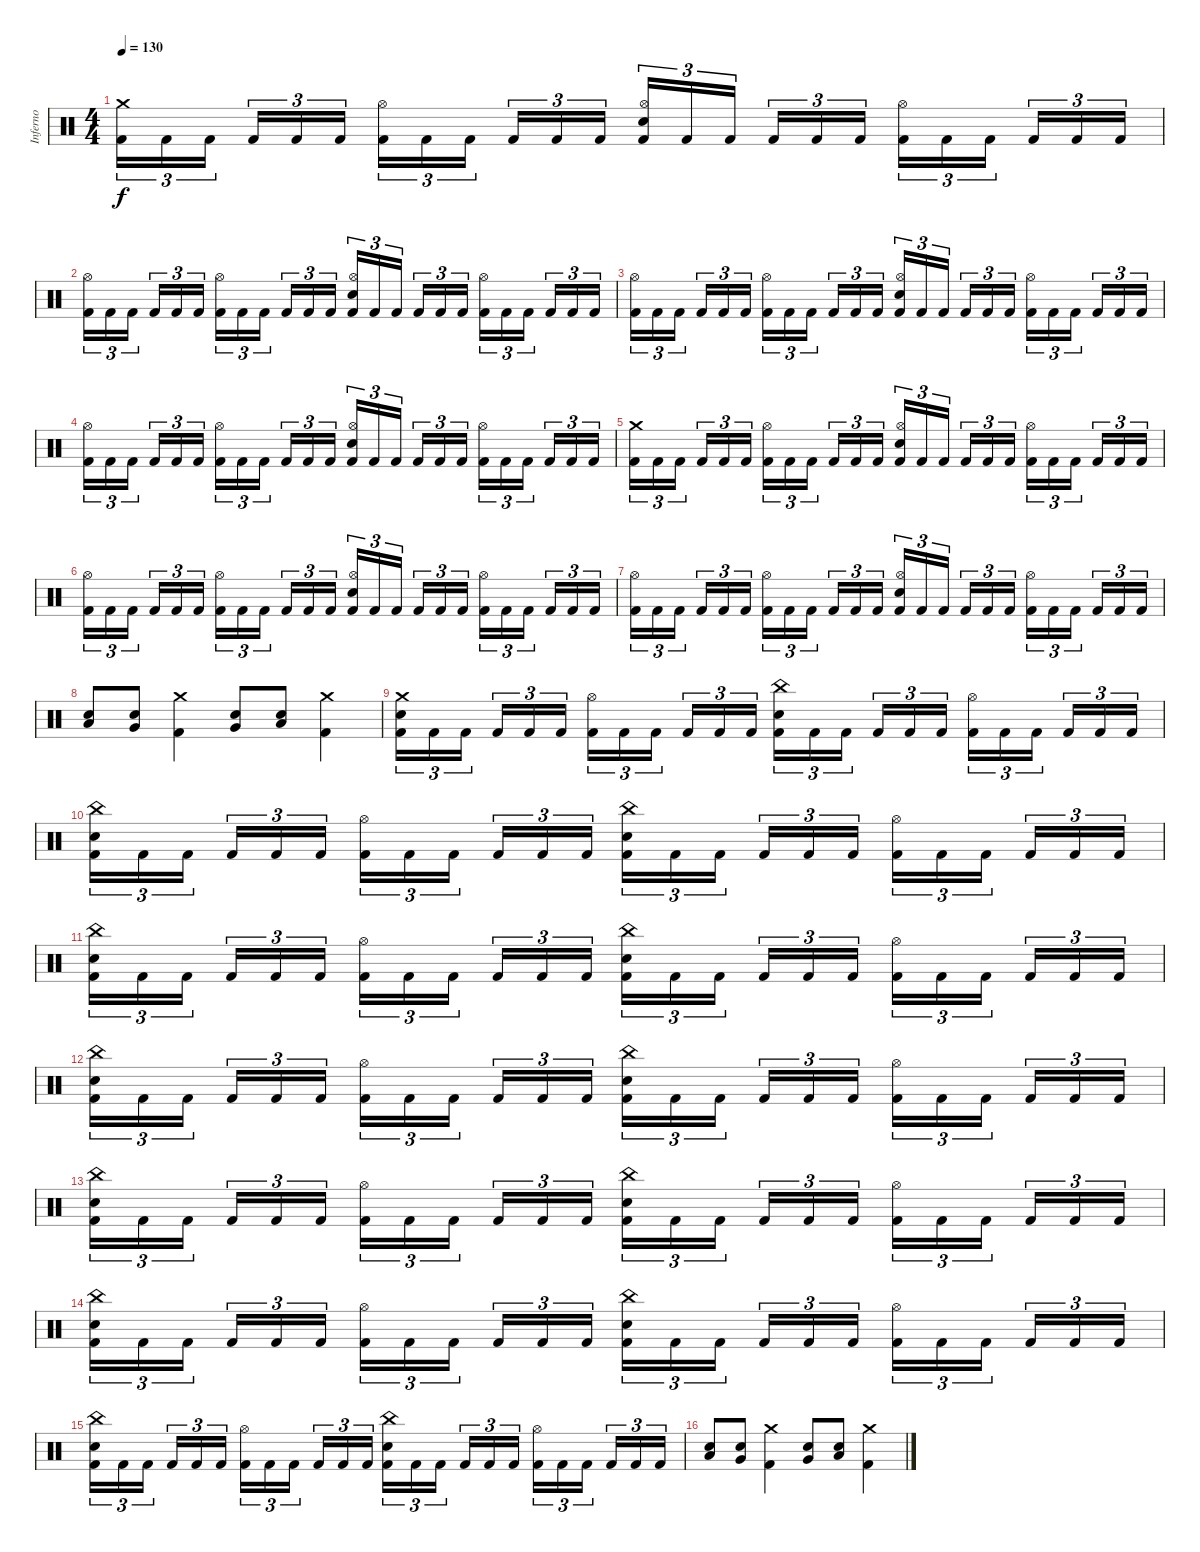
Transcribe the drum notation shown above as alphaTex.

\track ("Inferno" "Inferno") {instrument percussion}
\staff {score}
\articulation defaults
\ts (4 4)
\tempo 130
\clef neutral
\ks c
("Crash medium (hit)" "Kick (hit) 2").16{tu (3 2) dy f} "Kick (hit) 2".16{tu (3 2)} "Kick (hit) 2".16{tu (3 2) beam splitsecondary} "Kick (hit) 2".16{tu (3 2)} "Kick (hit) 2".16{tu (3 2)} "Kick (hit) 2".16{tu (3 2)} ("Hi-Hat (open)" "Kick (hit) 2").16{tu (3 2)} "Kick (hit) 2".16{tu (3 2)} "Kick (hit) 2".16{tu (3 2) beam splitsecondary} "Kick (hit) 2".16{tu (3 2)} "Kick (hit) 2".16{tu (3 2)} "Kick (hit) 2".16{tu (3 2)} ("Hi-Hat (open)" "Snare (hit) 2" "Kick (hit) 2").16{tu (3 2)} "Kick (hit) 2".16{tu (3 2)} "Kick (hit) 2".16{tu (3 2) beam splitsecondary} "Kick (hit) 2".16{tu (3 2)} "Kick (hit) 2".16{tu (3 2)} "Kick (hit) 2".16{tu (3 2)} ("Hi-Hat (open)" "Kick (hit) 2").16{tu (3 2)} "Kick (hit) 2".16{tu (3 2)} "Kick (hit) 2".16{tu (3 2) beam splitsecondary} "Kick (hit) 2".16{tu (3 2)} "Kick (hit) 2".16{tu (3 2)} "Kick (hit) 2".16{tu (3 2)} |
("Hi-Hat (open)" "Kick (hit) 2").16{tu (3 2)} "Kick (hit) 2".16{tu (3 2)} "Kick (hit) 2".16{tu (3 2) beam splitsecondary} "Kick (hit) 2".16{tu (3 2)} "Kick (hit) 2".16{tu (3 2)} "Kick (hit) 2".16{tu (3 2)} ("Hi-Hat (open)" "Kick (hit) 2").16{tu (3 2)} "Kick (hit) 2".16{tu (3 2)} "Kick (hit) 2".16{tu (3 2) beam splitsecondary} "Kick (hit) 2".16{tu (3 2)} "Kick (hit) 2".16{tu (3 2)} "Kick (hit) 2".16{tu (3 2)} ("Hi-Hat (open)" "Snare (hit) 2" "Kick (hit) 2").16{tu (3 2)} "Kick (hit) 2".16{tu (3 2)} "Kick (hit) 2".16{tu (3 2) beam splitsecondary} "Kick (hit) 2".16{tu (3 2)} "Kick (hit) 2".16{tu (3 2)} "Kick (hit) 2".16{tu (3 2)} ("Hi-Hat (open)" "Kick (hit) 2").16{tu (3 2)} "Kick (hit) 2".16{tu (3 2)} "Kick (hit) 2".16{tu (3 2) beam splitsecondary} "Kick (hit) 2".16{tu (3 2)} "Kick (hit) 2".16{tu (3 2)} "Kick (hit) 2".16{tu (3 2)} |
("Hi-Hat (open)" "Kick (hit) 2").16{tu (3 2)} "Kick (hit) 2".16{tu (3 2)} "Kick (hit) 2".16{tu (3 2) beam splitsecondary} "Kick (hit) 2".16{tu (3 2)} "Kick (hit) 2".16{tu (3 2)} "Kick (hit) 2".16{tu (3 2)} ("Hi-Hat (open)" "Kick (hit) 2").16{tu (3 2)} "Kick (hit) 2".16{tu (3 2)} "Kick (hit) 2".16{tu (3 2) beam splitsecondary} "Kick (hit) 2".16{tu (3 2)} "Kick (hit) 2".16{tu (3 2)} "Kick (hit) 2".16{tu (3 2)} ("Hi-Hat (open)" "Snare (hit) 2" "Kick (hit) 2").16{tu (3 2)} "Kick (hit) 2".16{tu (3 2)} "Kick (hit) 2".16{tu (3 2) beam splitsecondary} "Kick (hit) 2".16{tu (3 2)} "Kick (hit) 2".16{tu (3 2)} "Kick (hit) 2".16{tu (3 2)} ("Hi-Hat (open)" "Kick (hit) 2").16{tu (3 2)} "Kick (hit) 2".16{tu (3 2)} "Kick (hit) 2".16{tu (3 2) beam splitsecondary} "Kick (hit) 2".16{tu (3 2)} "Kick (hit) 2".16{tu (3 2)} "Kick (hit) 2".16{tu (3 2)} |
("Hi-Hat (open)" "Kick (hit) 2").16{tu (3 2)} "Kick (hit) 2".16{tu (3 2)} "Kick (hit) 2".16{tu (3 2) beam splitsecondary} "Kick (hit) 2".16{tu (3 2)} "Kick (hit) 2".16{tu (3 2)} "Kick (hit) 2".16{tu (3 2)} ("Hi-Hat (open)" "Kick (hit) 2").16{tu (3 2)} "Kick (hit) 2".16{tu (3 2)} "Kick (hit) 2".16{tu (3 2) beam splitsecondary} "Kick (hit) 2".16{tu (3 2)} "Kick (hit) 2".16{tu (3 2)} "Kick (hit) 2".16{tu (3 2)} ("Hi-Hat (open)" "Snare (hit) 2" "Kick (hit) 2").16{tu (3 2)} "Kick (hit) 2".16{tu (3 2)} "Kick (hit) 2".16{tu (3 2) beam splitsecondary} "Kick (hit) 2".16{tu (3 2)} "Kick (hit) 2".16{tu (3 2)} "Kick (hit) 2".16{tu (3 2)} ("Hi-Hat (open)" "Kick (hit) 2").16{tu (3 2)} "Kick (hit) 2".16{tu (3 2)} "Kick (hit) 2".16{tu (3 2) beam splitsecondary} "Kick (hit) 2".16{tu (3 2)} "Kick (hit) 2".16{tu (3 2)} "Kick (hit) 2".16{tu (3 2)} |
("Crash medium (hit)" "Kick (hit) 2").16{tu (3 2)} "Kick (hit) 2".16{tu (3 2)} "Kick (hit) 2".16{tu (3 2) beam splitsecondary} "Kick (hit) 2".16{tu (3 2)} "Kick (hit) 2".16{tu (3 2)} "Kick (hit) 2".16{tu (3 2)} ("Hi-Hat (open)" "Kick (hit) 2").16{tu (3 2)} "Kick (hit) 2".16{tu (3 2)} "Kick (hit) 2".16{tu (3 2) beam splitsecondary} "Kick (hit) 2".16{tu (3 2)} "Kick (hit) 2".16{tu (3 2)} "Kick (hit) 2".16{tu (3 2)} ("Hi-Hat (open)" "Snare (hit) 2" "Kick (hit) 2").16{tu (3 2)} "Kick (hit) 2".16{tu (3 2)} "Kick (hit) 2".16{tu (3 2) beam splitsecondary} "Kick (hit) 2".16{tu (3 2)} "Kick (hit) 2".16{tu (3 2)} "Kick (hit) 2".16{tu (3 2)} ("Hi-Hat (open)" "Kick (hit) 2").16{tu (3 2)} "Kick (hit) 2".16{tu (3 2)} "Kick (hit) 2".16{tu (3 2) beam splitsecondary} "Kick (hit) 2".16{tu (3 2)} "Kick (hit) 2".16{tu (3 2)} "Kick (hit) 2".16{tu (3 2)} |
("Hi-Hat (open)" "Kick (hit) 2").16{tu (3 2)} "Kick (hit) 2".16{tu (3 2)} "Kick (hit) 2".16{tu (3 2) beam splitsecondary} "Kick (hit) 2".16{tu (3 2)} "Kick (hit) 2".16{tu (3 2)} "Kick (hit) 2".16{tu (3 2)} ("Hi-Hat (open)" "Kick (hit) 2").16{tu (3 2)} "Kick (hit) 2".16{tu (3 2)} "Kick (hit) 2".16{tu (3 2) beam splitsecondary} "Kick (hit) 2".16{tu (3 2)} "Kick (hit) 2".16{tu (3 2)} "Kick (hit) 2".16{tu (3 2)} ("Hi-Hat (open)" "Snare (hit) 2" "Kick (hit) 2").16{tu (3 2)} "Kick (hit) 2".16{tu (3 2)} "Kick (hit) 2".16{tu (3 2) beam splitsecondary} "Kick (hit) 2".16{tu (3 2)} "Kick (hit) 2".16{tu (3 2)} "Kick (hit) 2".16{tu (3 2)} ("Hi-Hat (open)" "Kick (hit) 2").16{tu (3 2)} "Kick (hit) 2".16{tu (3 2)} "Kick (hit) 2".16{tu (3 2) beam splitsecondary} "Kick (hit) 2".16{tu (3 2)} "Kick (hit) 2".16{tu (3 2)} "Kick (hit) 2".16{tu (3 2)} |
("Hi-Hat (open)" "Kick (hit) 2").16{tu (3 2)} "Kick (hit) 2".16{tu (3 2)} "Kick (hit) 2".16{tu (3 2) beam splitsecondary} "Kick (hit) 2".16{tu (3 2)} "Kick (hit) 2".16{tu (3 2)} "Kick (hit) 2".16{tu (3 2)} ("Hi-Hat (open)" "Kick (hit) 2").16{tu (3 2)} "Kick (hit) 2".16{tu (3 2)} "Kick (hit) 2".16{tu (3 2) beam splitsecondary} "Kick (hit) 2".16{tu (3 2)} "Kick (hit) 2".16{tu (3 2)} "Kick (hit) 2".16{tu (3 2)} ("Hi-Hat (open)" "Snare (hit) 2" "Kick (hit) 2").16{tu (3 2)} "Kick (hit) 2".16{tu (3 2)} "Kick (hit) 2".16{tu (3 2) beam splitsecondary} "Kick (hit) 2".16{tu (3 2)} "Kick (hit) 2".16{tu (3 2)} "Kick (hit) 2".16{tu (3 2)} ("Hi-Hat (open)" "Kick (hit) 2").16{tu (3 2)} "Kick (hit) 2".16{tu (3 2)} "Kick (hit) 2".16{tu (3 2) beam splitsecondary} "Kick (hit) 2".16{tu (3 2)} "Kick (hit) 2".16{tu (3 2)} "Kick (hit) 2".16{tu (3 2)} |
("Low Tom (hit)" "Snare (hit) 2").8 ("Very Low Tom (hit)" "Snare (hit) 2").8 ("Crash medium (hit)" "Kick (hit) 2").4 ("Very Low Tom (hit)" "Snare (hit) 2").8 ("Low Floor Tom (hit)" "Snare (hit) 2").8 ("Crash medium (hit)" "Kick (hit) 2").4 |
("Crash medium (hit)" "Snare (hit) 2" "Kick (hit) 2").16{tu (3 2)} "Kick (hit) 2".16{tu (3 2)} "Kick (hit) 2".16{tu (3 2) beam splitsecondary} "Kick (hit) 2".16{tu (3 2)} "Kick (hit) 2".16{tu (3 2)} "Kick (hit) 2".16{tu (3 2)} ("Hi-Hat (open)" "Kick (hit) 2").16{tu (3 2)} "Kick (hit) 2".16{tu (3 2)} "Kick (hit) 2".16{tu (3 2) beam splitsecondary} "Kick (hit) 2".16{tu (3 2)} "Kick (hit) 2".16{tu (3 2)} "Kick (hit) 2".16{tu (3 2)} ("China (hit)" "Snare (hit) 2" "Kick (hit) 2").16{tu (3 2)} "Kick (hit) 2".16{tu (3 2)} "Kick (hit) 2".16{tu (3 2) beam splitsecondary} "Kick (hit) 2".16{tu (3 2)} "Kick (hit) 2".16{tu (3 2)} "Kick (hit) 2".16{tu (3 2)} ("Hi-Hat (open)" "Kick (hit) 2").16{tu (3 2)} "Kick (hit) 2".16{tu (3 2)} "Kick (hit) 2".16{tu (3 2) beam splitsecondary} "Kick (hit) 2".16{tu (3 2)} "Kick (hit) 2".16{tu (3 2)} "Kick (hit) 2".16{tu (3 2)} |
("China (hit)" "Snare (hit) 2" "Kick (hit) 2").16{tu (3 2)} "Kick (hit) 2".16{tu (3 2)} "Kick (hit) 2".16{tu (3 2) beam splitsecondary} "Kick (hit) 2".16{tu (3 2)} "Kick (hit) 2".16{tu (3 2)} "Kick (hit) 2".16{tu (3 2)} ("Hi-Hat (open)" "Kick (hit) 2").16{tu (3 2)} "Kick (hit) 2".16{tu (3 2)} "Kick (hit) 2".16{tu (3 2) beam splitsecondary} "Kick (hit) 2".16{tu (3 2)} "Kick (hit) 2".16{tu (3 2)} "Kick (hit) 2".16{tu (3 2)} ("China (hit)" "Snare (hit) 2" "Kick (hit) 2").16{tu (3 2)} "Kick (hit) 2".16{tu (3 2)} "Kick (hit) 2".16{tu (3 2) beam splitsecondary} "Kick (hit) 2".16{tu (3 2)} "Kick (hit) 2".16{tu (3 2)} "Kick (hit) 2".16{tu (3 2)} ("Hi-Hat (open)" "Kick (hit) 2").16{tu (3 2)} "Kick (hit) 2".16{tu (3 2)} "Kick (hit) 2".16{tu (3 2) beam splitsecondary} "Kick (hit) 2".16{tu (3 2)} "Kick (hit) 2".16{tu (3 2)} "Kick (hit) 2".16{tu (3 2)} |
("China (hit)" "Snare (hit) 2" "Kick (hit) 2").16{tu (3 2)} "Kick (hit) 2".16{tu (3 2)} "Kick (hit) 2".16{tu (3 2) beam splitsecondary} "Kick (hit) 2".16{tu (3 2)} "Kick (hit) 2".16{tu (3 2)} "Kick (hit) 2".16{tu (3 2)} ("Hi-Hat (open)" "Kick (hit) 2").16{tu (3 2)} "Kick (hit) 2".16{tu (3 2)} "Kick (hit) 2".16{tu (3 2) beam splitsecondary} "Kick (hit) 2".16{tu (3 2)} "Kick (hit) 2".16{tu (3 2)} "Kick (hit) 2".16{tu (3 2)} ("China (hit)" "Snare (hit) 2" "Kick (hit) 2").16{tu (3 2)} "Kick (hit) 2".16{tu (3 2)} "Kick (hit) 2".16{tu (3 2) beam splitsecondary} "Kick (hit) 2".16{tu (3 2)} "Kick (hit) 2".16{tu (3 2)} "Kick (hit) 2".16{tu (3 2)} ("Hi-Hat (open)" "Kick (hit) 2").16{tu (3 2)} "Kick (hit) 2".16{tu (3 2)} "Kick (hit) 2".16{tu (3 2) beam splitsecondary} "Kick (hit) 2".16{tu (3 2)} "Kick (hit) 2".16{tu (3 2)} "Kick (hit) 2".16{tu (3 2)} |
("China (hit)" "Snare (hit) 2" "Kick (hit) 2").16{tu (3 2)} "Kick (hit) 2".16{tu (3 2)} "Kick (hit) 2".16{tu (3 2) beam splitsecondary} "Kick (hit) 2".16{tu (3 2)} "Kick (hit) 2".16{tu (3 2)} "Kick (hit) 2".16{tu (3 2)} ("Hi-Hat (open)" "Kick (hit) 2").16{tu (3 2)} "Kick (hit) 2".16{tu (3 2)} "Kick (hit) 2".16{tu (3 2) beam splitsecondary} "Kick (hit) 2".16{tu (3 2)} "Kick (hit) 2".16{tu (3 2)} "Kick (hit) 2".16{tu (3 2)} ("China (hit)" "Snare (hit) 2" "Kick (hit) 2").16{tu (3 2)} "Kick (hit) 2".16{tu (3 2)} "Kick (hit) 2".16{tu (3 2) beam splitsecondary} "Kick (hit) 2".16{tu (3 2)} "Kick (hit) 2".16{tu (3 2)} "Kick (hit) 2".16{tu (3 2)} ("Hi-Hat (open)" "Kick (hit) 2").16{tu (3 2)} "Kick (hit) 2".16{tu (3 2)} "Kick (hit) 2".16{tu (3 2) beam splitsecondary} "Kick (hit) 2".16{tu (3 2)} "Kick (hit) 2".16{tu (3 2)} "Kick (hit) 2".16{tu (3 2)} |
("China (hit)" "Snare (hit) 2" "Kick (hit) 2").16{tu (3 2)} "Kick (hit) 2".16{tu (3 2)} "Kick (hit) 2".16{tu (3 2) beam splitsecondary} "Kick (hit) 2".16{tu (3 2)} "Kick (hit) 2".16{tu (3 2)} "Kick (hit) 2".16{tu (3 2)} ("Hi-Hat (open)" "Kick (hit) 2").16{tu (3 2)} "Kick (hit) 2".16{tu (3 2)} "Kick (hit) 2".16{tu (3 2) beam splitsecondary} "Kick (hit) 2".16{tu (3 2)} "Kick (hit) 2".16{tu (3 2)} "Kick (hit) 2".16{tu (3 2)} ("China (hit)" "Snare (hit) 2" "Kick (hit) 2").16{tu (3 2)} "Kick (hit) 2".16{tu (3 2)} "Kick (hit) 2".16{tu (3 2) beam splitsecondary} "Kick (hit) 2".16{tu (3 2)} "Kick (hit) 2".16{tu (3 2)} "Kick (hit) 2".16{tu (3 2)} ("Hi-Hat (open)" "Kick (hit) 2").16{tu (3 2)} "Kick (hit) 2".16{tu (3 2)} "Kick (hit) 2".16{tu (3 2) beam splitsecondary} "Kick (hit) 2".16{tu (3 2)} "Kick (hit) 2".16{tu (3 2)} "Kick (hit) 2".16{tu (3 2)} |
("China (hit)" "Snare (hit) 2" "Kick (hit) 2").16{tu (3 2)} "Kick (hit) 2".16{tu (3 2)} "Kick (hit) 2".16{tu (3 2) beam splitsecondary} "Kick (hit) 2".16{tu (3 2)} "Kick (hit) 2".16{tu (3 2)} "Kick (hit) 2".16{tu (3 2)} ("Hi-Hat (open)" "Kick (hit) 2").16{tu (3 2)} "Kick (hit) 2".16{tu (3 2)} "Kick (hit) 2".16{tu (3 2) beam splitsecondary} "Kick (hit) 2".16{tu (3 2)} "Kick (hit) 2".16{tu (3 2)} "Kick (hit) 2".16{tu (3 2)} ("China (hit)" "Snare (hit) 2" "Kick (hit) 2").16{tu (3 2)} "Kick (hit) 2".16{tu (3 2)} "Kick (hit) 2".16{tu (3 2) beam splitsecondary} "Kick (hit) 2".16{tu (3 2)} "Kick (hit) 2".16{tu (3 2)} "Kick (hit) 2".16{tu (3 2)} ("Hi-Hat (open)" "Kick (hit) 2").16{tu (3 2)} "Kick (hit) 2".16{tu (3 2)} "Kick (hit) 2".16{tu (3 2) beam splitsecondary} "Kick (hit) 2".16{tu (3 2)} "Kick (hit) 2".16{tu (3 2)} "Kick (hit) 2".16{tu (3 2)} |
("China (hit)" "Snare (hit) 2" "Kick (hit) 2").16{tu (3 2)} "Kick (hit) 2".16{tu (3 2)} "Kick (hit) 2".16{tu (3 2) beam splitsecondary} "Kick (hit) 2".16{tu (3 2)} "Kick (hit) 2".16{tu (3 2)} "Kick (hit) 2".16{tu (3 2)} ("Hi-Hat (open)" "Kick (hit) 2").16{tu (3 2)} "Kick (hit) 2".16{tu (3 2)} "Kick (hit) 2".16{tu (3 2) beam splitsecondary} "Kick (hit) 2".16{tu (3 2)} "Kick (hit) 2".16{tu (3 2)} "Kick (hit) 2".16{tu (3 2)} ("China (hit)" "Snare (hit) 2" "Kick (hit) 2").16{tu (3 2)} "Kick (hit) 2".16{tu (3 2)} "Kick (hit) 2".16{tu (3 2) beam splitsecondary} "Kick (hit) 2".16{tu (3 2)} "Kick (hit) 2".16{tu (3 2)} "Kick (hit) 2".16{tu (3 2)} ("Hi-Hat (open)" "Kick (hit) 2").16{tu (3 2)} "Kick (hit) 2".16{tu (3 2)} "Kick (hit) 2".16{tu (3 2) beam splitsecondary} "Kick (hit) 2".16{tu (3 2)} "Kick (hit) 2".16{tu (3 2)} "Kick (hit) 2".16{tu (3 2)} |
("Low Tom (hit)" "Snare (hit) 2").8 ("Very Low Tom (hit)" "Snare (hit) 2").8 ("Crash medium (hit)" "Kick (hit) 2").4 ("Very Low Tom (hit)" "Snare (hit) 2").8 ("Low Floor Tom (hit)" "Snare (hit) 2").8 ("Crash medium (hit)" "Kick (hit) 2").4
